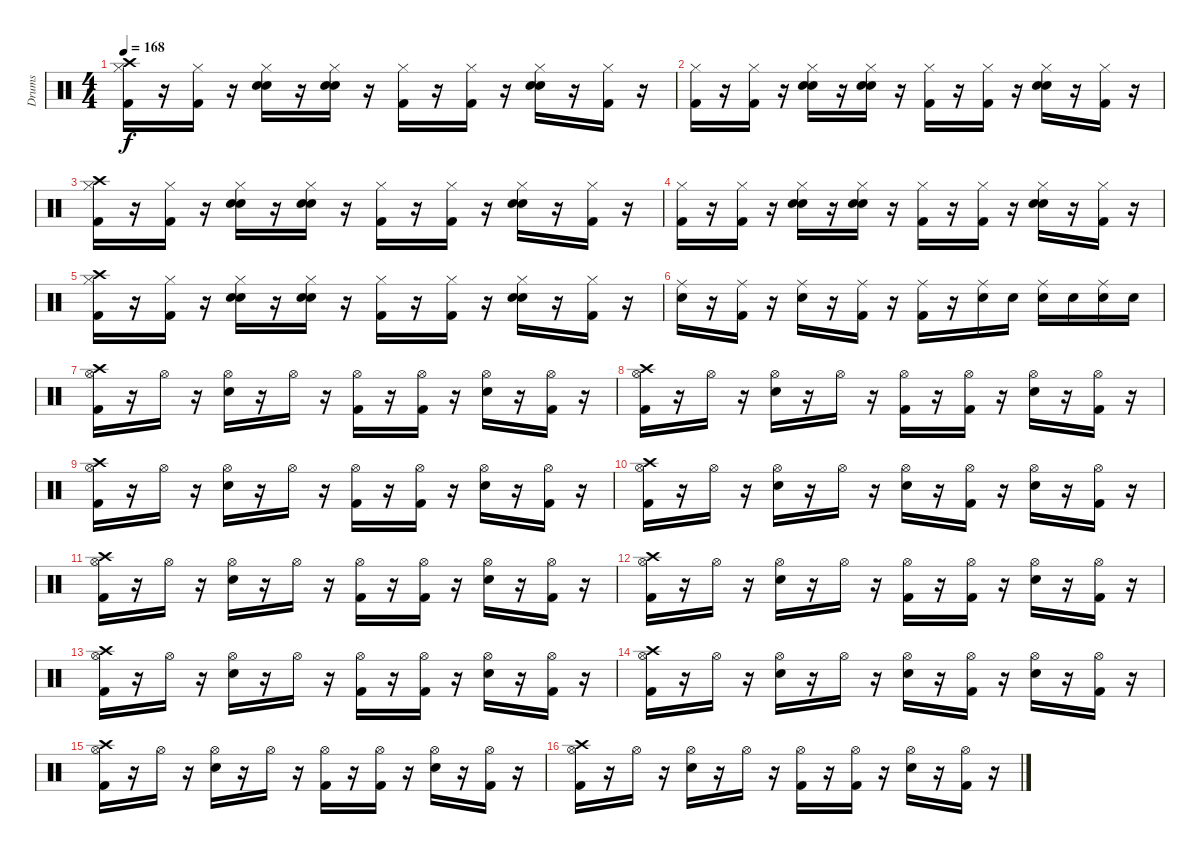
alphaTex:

\track ("Drums" "Drums") {instrument percussion}
\staff {score}
\articulation defaults
\ts (4 4)
\tempo 168
\clef neutral
\ks c
("Hi-Hat (closed)" "Kick (hit) 2" "Crash high (hit)").16{dy f} r.16 ("Hi-Hat (closed)" "Kick (hit) 2").16 r.16 ("Hi-Hat (closed)" "Snare (hit) 2" "Hand Clap (hit)").16 r.16 ("Hi-Hat (closed)" "Snare (hit) 2" "Hand Clap (hit)").16 r.16 ("Hi-Hat (closed)" "Kick (hit) 2").16 r.16 ("Hi-Hat (closed)" "Kick (hit) 2").16 r.16 ("Hi-Hat (closed)" "Snare (hit) 2" "Hand Clap (hit)").16 r.16 ("Hi-Hat (closed)" "Kick (hit) 2").16 r.16 |
("Hi-Hat (closed)" "Kick (hit) 2").16 r.16 ("Hi-Hat (closed)" "Kick (hit) 2").16 r.16 ("Hi-Hat (closed)" "Snare (hit) 2" "Hand Clap (hit)").16 r.16 ("Hi-Hat (closed)" "Snare (hit) 2" "Hand Clap (hit)").16 r.16 ("Hi-Hat (closed)" "Kick (hit) 2").16 r.16 ("Hi-Hat (closed)" "Kick (hit) 2").16 r.16 ("Hi-Hat (closed)" "Snare (hit) 2" "Hand Clap (hit)").16 r.16 ("Hi-Hat (closed)" "Kick (hit) 2").16 r.16 |
("Hi-Hat (closed)" "Kick (hit) 2" "Crash high (hit)").16 r.16 ("Hi-Hat (closed)" "Kick (hit) 2").16 r.16 ("Hi-Hat (closed)" "Snare (hit) 2" "Hand Clap (hit)").16 r.16 ("Hi-Hat (closed)" "Snare (hit) 2" "Hand Clap (hit)").16 r.16 ("Hi-Hat (closed)" "Kick (hit) 2").16 r.16 ("Hi-Hat (closed)" "Kick (hit) 2").16 r.16 ("Hi-Hat (closed)" "Snare (hit) 2" "Hand Clap (hit)").16 r.16 ("Hi-Hat (closed)" "Kick (hit) 2").16 r.16 |
("Hi-Hat (closed)" "Kick (hit) 2").16 r.16 ("Hi-Hat (closed)" "Kick (hit) 2").16 r.16 ("Hi-Hat (closed)" "Snare (hit) 2" "Hand Clap (hit)").16 r.16 ("Hi-Hat (closed)" "Snare (hit) 2" "Hand Clap (hit)").16 r.16 ("Hi-Hat (closed)" "Kick (hit) 2").16 r.16 ("Hi-Hat (closed)" "Kick (hit) 2").16 r.16 ("Hi-Hat (closed)" "Snare (hit) 2" "Hand Clap (hit)").16 r.16 ("Hi-Hat (closed)" "Kick (hit) 2").16 r.16 |
("Hi-Hat (closed)" "Kick (hit) 2" "Crash high (hit)").16 r.16 ("Hi-Hat (closed)" "Kick (hit) 2").16 r.16 ("Hi-Hat (closed)" "Snare (hit) 2" "Hand Clap (hit)").16 r.16 ("Hi-Hat (closed)" "Snare (hit) 2" "Hand Clap (hit)").16 r.16 ("Hi-Hat (closed)" "Kick (hit) 2").16 r.16 ("Hi-Hat (closed)" "Kick (hit) 2").16 r.16 ("Hi-Hat (closed)" "Snare (hit) 2" "Hand Clap (hit)").16 r.16 ("Hi-Hat (closed)" "Kick (hit) 2").16 r.16 |
("Ride (middle)" "Snare (hit) 2").16 r.16 ("Ride (middle)" "Kick (hit) 2").16 r.16 ("Ride (middle)" "Snare (hit) 2").16 r.16 ("Ride (middle)" "Kick (hit) 2").16 r.16 ("Ride (middle)" "Kick (hit) 2").16 r.16 ("Ride (middle)" "Snare (hit) 2").16 "Snare (hit) 2".16 ("Ride (middle)" "Snare (hit) 2").16 "Snare (hit) 2".16 ("Ride (middle)" "Snare (hit) 2").16 "Snare (hit) 2".16 |
("Hi-Hat (open)" "Kick (hit) 2" "Crash high (hit)").16 r.16 "Hi-Hat (open)".16 r.16 ("Hi-Hat (open)" "Snare (hit) 2").16 r.16 "Hi-Hat (open)".16 r.16 ("Hi-Hat (open)" "Kick (hit) 2").16 r.16 ("Hi-Hat (open)" "Kick (hit) 2").16 r.16 ("Hi-Hat (open)" "Snare (hit) 2").16 r.16 ("Hi-Hat (open)" "Kick (hit) 2").16 r.16 |
("Hi-Hat (open)" "Kick (hit) 2" "Crash high (hit)").16 r.16 "Hi-Hat (open)".16 r.16 ("Hi-Hat (open)" "Snare (hit) 2").16 r.16 "Hi-Hat (open)".16 r.16 ("Hi-Hat (open)" "Kick (hit) 2").16 r.16 ("Hi-Hat (open)" "Kick (hit) 2").16 r.16 ("Hi-Hat (open)" "Snare (hit) 2").16 r.16 ("Hi-Hat (open)" "Kick (hit) 2").16 r.16 |
("Hi-Hat (open)" "Kick (hit) 2" "Crash high (hit)").16 r.16 "Hi-Hat (open)".16 r.16 ("Hi-Hat (open)" "Snare (hit) 2").16 r.16 "Hi-Hat (open)".16 r.16 ("Hi-Hat (open)" "Kick (hit) 2").16 r.16 ("Hi-Hat (open)" "Kick (hit) 2").16 r.16 ("Hi-Hat (open)" "Snare (hit) 2").16 r.16 ("Hi-Hat (open)" "Kick (hit) 2").16 r.16 |
("Hi-Hat (open)" "Kick (hit) 2" "Crash high (hit)").16 r.16 "Hi-Hat (open)".16 r.16 ("Hi-Hat (open)" "Snare (hit) 2").16 r.16 "Hi-Hat (open)".16 r.16 ("Hi-Hat (open)" "Snare (hit) 2").16 r.16 ("Hi-Hat (open)" "Kick (hit) 2").16 r.16 ("Hi-Hat (open)" "Snare (hit) 2").16 r.16 ("Hi-Hat (open)" "Kick (hit) 2").16 r.16 |
("Hi-Hat (open)" "Kick (hit) 2" "Crash high (hit)").16 r.16 "Hi-Hat (open)".16 r.16 ("Hi-Hat (open)" "Snare (hit) 2").16 r.16 "Hi-Hat (open)".16 r.16 ("Hi-Hat (open)" "Kick (hit) 2").16 r.16 ("Hi-Hat (open)" "Kick (hit) 2").16 r.16 ("Hi-Hat (open)" "Snare (hit) 2").16 r.16 ("Hi-Hat (open)" "Kick (hit) 2").16 r.16 |
("Hi-Hat (open)" "Kick (hit) 2" "Crash high (hit)").16 r.16 "Hi-Hat (open)".16 r.16 ("Hi-Hat (open)" "Snare (hit) 2").16 r.16 "Hi-Hat (open)".16 r.16 ("Hi-Hat (open)" "Kick (hit) 2").16 r.16 ("Hi-Hat (open)" "Kick (hit) 2").16 r.16 ("Hi-Hat (open)" "Snare (hit) 2").16 r.16 ("Hi-Hat (open)" "Kick (hit) 2").16 r.16 |
("Hi-Hat (open)" "Kick (hit) 2" "Crash high (hit)").16 r.16 "Hi-Hat (open)".16 r.16 ("Hi-Hat (open)" "Snare (hit) 2").16 r.16 "Hi-Hat (open)".16 r.16 ("Hi-Hat (open)" "Kick (hit) 2").16 r.16 ("Hi-Hat (open)" "Kick (hit) 2").16 r.16 ("Hi-Hat (open)" "Snare (hit) 2").16 r.16 ("Hi-Hat (open)" "Kick (hit) 2").16 r.16 |
("Hi-Hat (open)" "Kick (hit) 2" "Crash high (hit)").16 r.16 "Hi-Hat (open)".16 r.16 ("Hi-Hat (open)" "Snare (hit) 2").16 r.16 "Hi-Hat (open)".16 r.16 ("Hi-Hat (open)" "Snare (hit) 2").16 r.16 ("Hi-Hat (open)" "Kick (hit) 2").16 r.16 ("Hi-Hat (open)" "Snare (hit) 2").16 r.16 ("Hi-Hat (open)" "Kick (hit) 2").16 r.16 |
("Hi-Hat (open)" "Kick (hit) 2" "Crash high (hit)").16 r.16 "Hi-Hat (open)".16 r.16 ("Hi-Hat (open)" "Snare (hit) 2").16 r.16 "Hi-Hat (open)".16 r.16 ("Hi-Hat (open)" "Kick (hit) 2").16 r.16 ("Hi-Hat (open)" "Kick (hit) 2").16 r.16 ("Hi-Hat (open)" "Snare (hit) 2").16 r.16 ("Hi-Hat (open)" "Kick (hit) 2").16 r.16 |
("Hi-Hat (open)" "Kick (hit) 2" "Crash high (hit)").16 r.16 "Hi-Hat (open)".16 r.16 ("Hi-Hat (open)" "Snare (hit) 2").16 r.16 "Hi-Hat (open)".16 r.16 ("Hi-Hat (open)" "Kick (hit) 2").16 r.16 ("Hi-Hat (open)" "Kick (hit) 2").16 r.16 ("Hi-Hat (open)" "Snare (hit) 2").16 r.16 ("Hi-Hat (open)" "Kick (hit) 2").16 r.16
